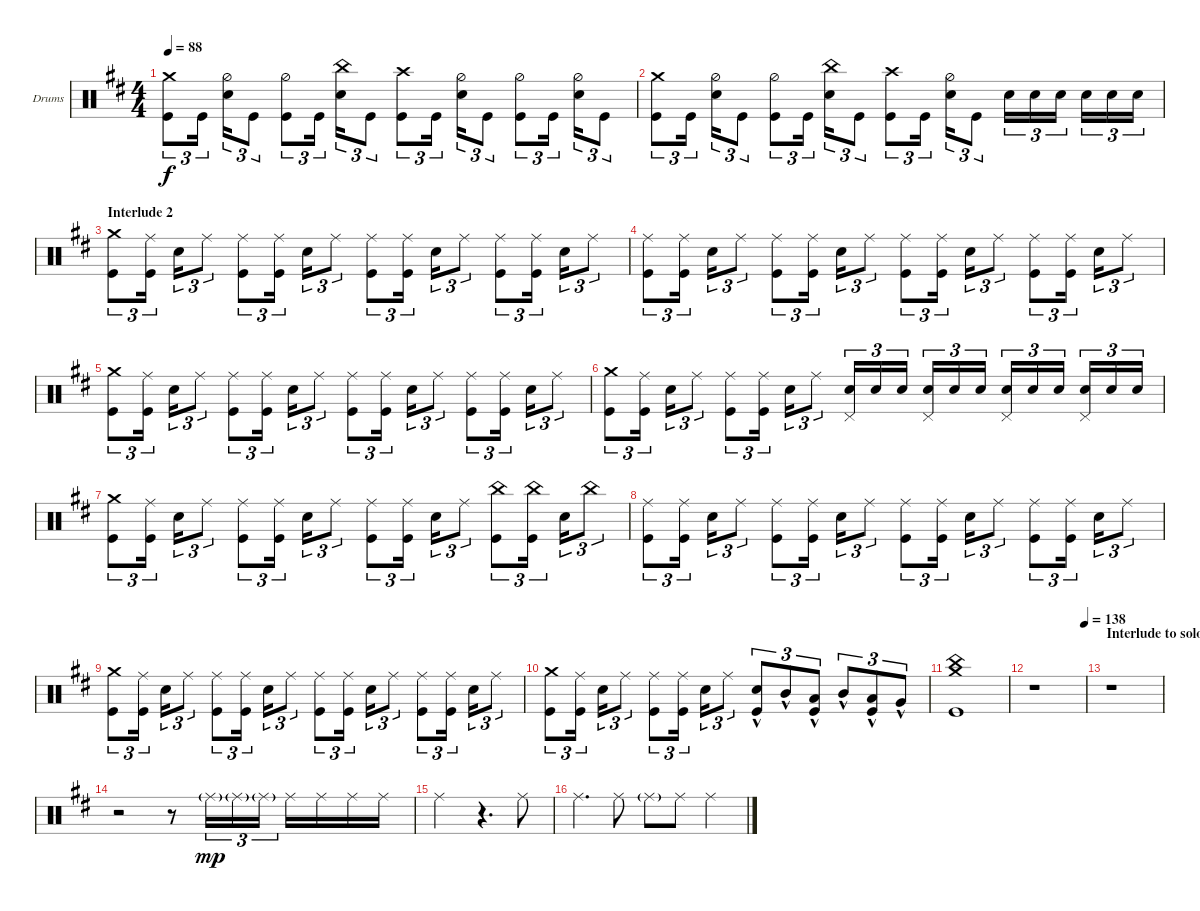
\defaultSystemsLayout 4
\bracketExtendMode groupsimilarinstruments
\firstSystemTrackNameOrientation horizontal
\otherSystemsTrackNameOrientation horizontal
\track ("Drumkit" "Drums") {instrument percussion}
\staff {score}
\articulation defaults
\ts (4 4)
\tempo 88
\clef neutral
\ks d
("Kick (hit)" "Crash medium (hit)").8{tu (3 2) dy f} "Kick (hit)".16{tu (3 2)} ("Snare (hit) 2" "Hi-Hat (half)").16{tu (3 2)} "Kick (hit)".8{tu (3 2)} ("Kick (hit)" "Hi-Hat (half)").8{tu (3 2)} "Kick (hit)".16{tu (3 2)} ("Snare (hit) 2" "China (hit)").16{tu (3 2)} "Kick (hit)".8{tu (3 2)} ("Kick (hit)" "Crash high (hit)").8{tu (3 2)} "Kick (hit)".16{tu (3 2)} ("Snare (hit) 2" "Hi-Hat (half)").16{tu (3 2)} "Kick (hit)".8{tu (3 2)} ("Kick (hit)" "Hi-Hat (half)").8{tu (3 2)} "Kick (hit)".16{tu (3 2)} ("Snare (hit) 2" "Hi-Hat (half)").16{tu (3 2)} "Kick (hit)".8{tu (3 2)} |
("Kick (hit)" "Crash medium (hit)").8{tu (3 2)} "Kick (hit)".16{tu (3 2)} ("Snare (hit) 2" "Hi-Hat (half)").16{tu (3 2)} "Kick (hit)".8{tu (3 2)} ("Kick (hit)" "Hi-Hat (half)").8{tu (3 2)} "Kick (hit)".16{tu (3 2)} ("Snare (hit) 2" "China (hit)").16{tu (3 2)} "Kick (hit)".8{tu (3 2)} ("Kick (hit)" "Crash high (hit)").8{tu (3 2)} "Kick (hit)".16{tu (3 2)} ("Snare (hit) 2" "Hi-Hat (half)").16{tu (3 2)} "Kick (hit)".8{tu (3 2)} "Snare (hit) 2".16{tu (3 2)} "Snare (hit) 2".16{tu (3 2)} "Snare (hit) 2".16{tu (3 2)} "Snare (hit) 2".16{tu (3 2)} "Snare (hit) 2".16{tu (3 2)} "Snare (hit) 2".16{tu (3 2)} |
\section ("" "Interlude 2")
("Kick (hit)" "Crash medium (hit)").8{tu (3 2)} ("Kick (hit)" "Ride (middle)").16{tu (3 2)} "Snare (hit) 2".16{tu (3 2)} "Ride (middle)".8{tu (3 2)} ("Kick (hit)" "Ride (middle)").8{tu (3 2)} ("Kick (hit)" "Ride (middle)").16{tu (3 2)} "Snare (hit) 2".16{tu (3 2)} "Ride (middle)".8{tu (3 2)} ("Kick (hit)" "Ride (middle)").8{tu (3 2)} ("Kick (hit)" "Ride (middle)").16{tu (3 2)} "Snare (hit) 2".16{tu (3 2)} "Ride (middle)".8{tu (3 2)} ("Kick (hit)" "Ride (middle)").8{tu (3 2)} ("Kick (hit)" "Ride (middle)").16{tu (3 2)} "Snare (hit) 2".16{tu (3 2)} "Ride (middle)".8{tu (3 2)} |
("Kick (hit)" "Ride (middle)").8{tu (3 2)} ("Kick (hit)" "Ride (middle)").16{tu (3 2)} "Snare (hit) 2".16{tu (3 2)} "Ride (middle)".8{tu (3 2)} ("Kick (hit)" "Ride (middle)").8{tu (3 2)} ("Kick (hit)" "Ride (middle)").16{tu (3 2)} "Snare (hit) 2".16{tu (3 2)} "Ride (middle)".8{tu (3 2)} ("Kick (hit)" "Ride (middle)").8{tu (3 2)} ("Kick (hit)" "Ride (middle)").16{tu (3 2)} "Snare (hit) 2".16{tu (3 2)} "Ride (middle)".8{tu (3 2)} ("Kick (hit)" "Ride (middle)").8{tu (3 2)} ("Kick (hit)" "Ride (middle)").16{tu (3 2)} "Snare (hit) 2".16{tu (3 2)} "Ride (middle)".8{tu (3 2)} |
("Kick (hit)" "Crash medium (hit)").8{tu (3 2)} ("Kick (hit)" "Ride (middle)").16{tu (3 2)} "Snare (hit) 2".16{tu (3 2)} "Ride (middle)".8{tu (3 2)} ("Kick (hit)" "Ride (middle)").8{tu (3 2)} ("Kick (hit)" "Ride (middle)").16{tu (3 2)} "Snare (hit) 2".16{tu (3 2)} "Ride (middle)".8{tu (3 2)} ("Kick (hit)" "Ride (middle)").8{tu (3 2)} ("Kick (hit)" "Ride (middle)").16{tu (3 2)} "Snare (hit) 2".16{tu (3 2)} "Ride (middle)".8{tu (3 2)} ("Kick (hit)" "Ride (middle)").8{tu (3 2)} ("Kick (hit)" "Ride (middle)").16{tu (3 2)} "Snare (hit) 2".16{tu (3 2)} "Ride (middle)".8{tu (3 2)} |
("Kick (hit)" "Crash medium (hit)").8{tu (3 2)} ("Kick (hit)" "Ride (middle)").16{tu (3 2)} "Snare (hit) 2".16{tu (3 2)} "Ride (middle)".8{tu (3 2)} ("Kick (hit)" "Ride (middle)").8{tu (3 2)} ("Kick (hit)" "Ride (middle)").16{tu (3 2)} "Snare (hit) 2".16{tu (3 2)} "Ride (middle)".8{tu (3 2)} ("Snare (hit) 2" "Pedal Hi-Hat (hit)").16{tu (3 2)} "Snare (hit) 2".16{tu (3 2)} "Snare (hit) 2".16{tu (3 2)} ("Snare (hit) 2" "Pedal Hi-Hat (hit)").16{tu (3 2)} "Snare (hit) 2".16{tu (3 2)} "Snare (hit) 2".16{tu (3 2)} ("Snare (hit) 2" "Pedal Hi-Hat (hit)").16{tu (3 2)} "Snare (hit) 2".16{tu (3 2)} "Snare (hit) 2".16{tu (3 2)} ("Snare (hit) 2" "Pedal Hi-Hat (hit)").16{tu (3 2)} "Snare (hit) 2".16{tu (3 2)} "Snare (hit) 2".16{tu (3 2)} |
("Kick (hit)" "Crash medium (hit)").8{tu (3 2)} ("Kick (hit)" "Ride (middle)").16{tu (3 2)} "Snare (hit) 2".16{tu (3 2)} "Ride (middle)".8{tu (3 2)} ("Kick (hit)" "Ride (middle)").8{tu (3 2)} ("Kick (hit)" "Ride (middle)").16{tu (3 2)} "Snare (hit) 2".16{tu (3 2)} "Ride (middle)".8{tu (3 2)} ("Kick (hit)" "Ride (middle)").8{tu (3 2)} ("Kick (hit)" "Ride (middle)").16{tu (3 2)} "Snare (hit) 2".16{tu (3 2)} "Ride (middle)".8{tu (3 2)} ("Kick (hit)" "China (hit)").8{tu (3 2)} ("Kick (hit)" "China (hit)").16{tu (3 2)} "Snare (hit) 2".16{tu (3 2)} "China (hit)".8{tu (3 2)} |
("Kick (hit)" "Ride (middle)").8{tu (3 2)} ("Kick (hit)" "Ride (middle)").16{tu (3 2)} "Snare (hit) 2".16{tu (3 2)} "Ride (middle)".8{tu (3 2)} ("Kick (hit)" "Ride (middle)").8{tu (3 2)} ("Kick (hit)" "Ride (middle)").16{tu (3 2)} "Snare (hit) 2".16{tu (3 2)} "Ride (middle)".8{tu (3 2)} ("Kick (hit)" "Ride (middle)").8{tu (3 2)} ("Kick (hit)" "Ride (middle)").16{tu (3 2)} "Snare (hit) 2".16{tu (3 2)} "Ride (middle)".8{tu (3 2)} ("Kick (hit)" "Ride (middle)").8{tu (3 2)} ("Kick (hit)" "Ride (middle)").16{tu (3 2)} "Snare (hit) 2".16{tu (3 2)} "Ride (middle)".8{tu (3 2)} |
("Kick (hit)" "Crash medium (hit)").8{tu (3 2)} ("Kick (hit)" "Ride (middle)").16{tu (3 2)} "Snare (hit) 2".16{tu (3 2)} "Ride (middle)".8{tu (3 2)} ("Kick (hit)" "Ride (middle)").8{tu (3 2)} ("Kick (hit)" "Ride (middle)").16{tu (3 2)} "Snare (hit) 2".16{tu (3 2)} "Ride (middle)".8{tu (3 2)} ("Kick (hit)" "Ride (middle)").8{tu (3 2)} ("Kick (hit)" "Ride (middle)").16{tu (3 2)} "Snare (hit) 2".16{tu (3 2)} "Ride (middle)".8{tu (3 2)} ("Kick (hit)" "Ride (middle)").8{tu (3 2)} ("Kick (hit)" "Ride (middle)").16{tu (3 2)} "Snare (hit) 2".16{tu (3 2)} "Ride (middle)".8{tu (3 2)} |
("Kick (hit)" "Crash medium (hit)").8{tu (3 2)} ("Kick (hit)" "Ride (middle)").16{tu (3 2)} "Snare (hit) 2".16{tu (3 2)} "Ride (middle)".8{tu (3 2)} ("Kick (hit)" "Ride (middle)").8{tu (3 2)} ("Kick (hit)" "Ride (middle)").16{tu (3 2)} "Snare (hit) 2".16{tu (3 2)} "Ride (middle)".8{tu (3 2)} ("Snare (hit) 2"{hac} "Kick (hit)").8{tu (3 2)} "Mid Tom (hit)"{hac}.8{tu (3 2)} ("Low Tom (hit)"{hac} "Kick (hit)").8{tu (3 2)} "Mid Tom (hit)"{hac}.8{tu (3 2)} ("Low Tom (hit)"{hac} "Kick (hit)").8{tu (3 2)} "Very Low Tom (hit)"{hac}.8{tu (3 2)} |
("Kick (hit)" "Crash medium (hit)" "China (hit)").1 |
\tempo (138 0.99375)
r.1 |
\section ("" "Interlude to solo")
r.1 |
r.2 r.8 "Ride (middle)"{g}.16{tu (3 2) dy mp} "Ride (middle)"{g}.16{tu (3 2)} "Ride (middle)"{g}.16{tu (3 2)} "Ride (middle)".16 "Ride (middle)".16 "Ride (middle)".16 "Ride (middle)".16 |
"Ride (middle)".2 r.4{d} "Ride (middle)".8 |
"Ride (middle)".4{d} "Ride (middle)".8 "Ride (middle)"{g}.8 "Ride (middle)".8 "Ride (middle)".4
